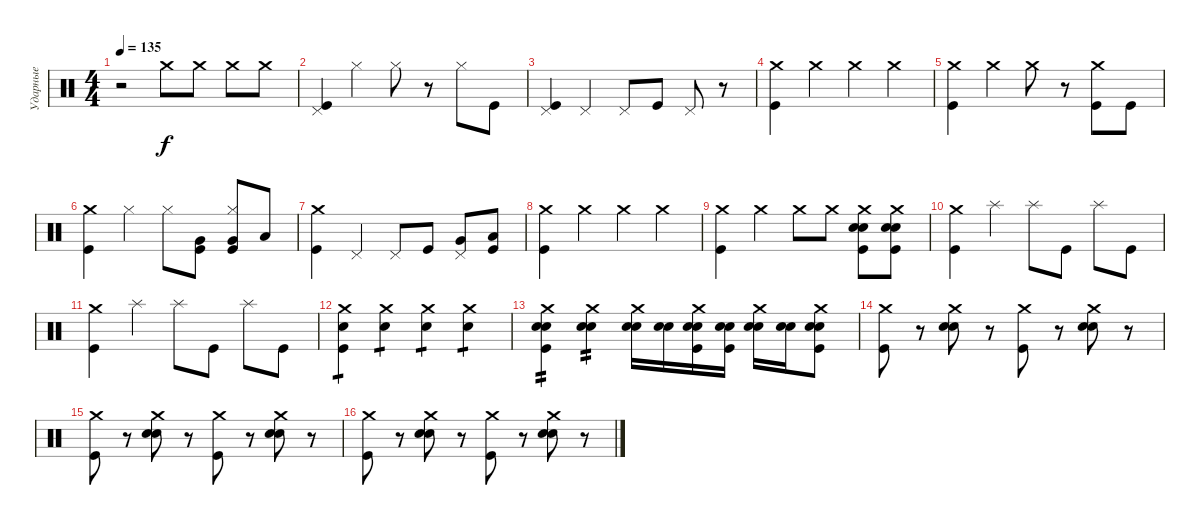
\track ("Ударные" "Ударные") {instrument percussion}
\staff {score}
\articulation defaults
\ts (4 4)
\tempo 135
\clef neutral
\ks c
r.2{dy f} "Crash medium (hit)".8 "Crash medium (hit)".8 "Crash medium (hit)".8 "Crash medium (hit)".8 |
("Pedal Hi-Hat (hit)" "Kick (hit)").4 "Hi-Hat (closed)".4 "Hi-Hat (closed)".8 r.8 "Hi-Hat (closed)".8 "Kick (hit)".8 |
("Pedal Hi-Hat (hit)" "Kick (hit)").4 "Pedal Hi-Hat (hit)".4 "Pedal Hi-Hat (hit)".8 "Kick (hit)".8 "Pedal Hi-Hat (hit)".8 r.8 |
("Crash medium (hit)" "Kick (hit)").4 "Crash medium (hit)".4 "Crash medium (hit)".4 "Crash medium (hit)".4 |
("Crash medium (hit)" "Kick (hit)").4 "Crash medium (hit)".4 "Crash medium (hit)".8 r.8 ("Crash medium (hit)" "Kick (hit)").8 "Kick (hit)".8 |
("Crash medium (hit)" "Kick (hit)").4 "Hi-Hat (closed)".4 "Hi-Hat (closed)".8 ("Very Low Tom (hit)" "Kick (hit)").8 ("Hi-Hat (closed)" "Very Low Tom (hit)" "Kick (hit)").8 "Low Floor Tom (hit)".8 |
("Crash medium (hit)" "Kick (hit)").4 "Pedal Hi-Hat (hit)".4 "Pedal Hi-Hat (hit)".8 "Kick (hit)".8 ("Pedal Hi-Hat (hit)" "Very Low Tom (hit)").8 ("Low Floor Tom (hit)" "Kick (hit)").8 |
("Crash medium (hit)" "Kick (hit)").4 "Crash medium (hit)".4 "Crash medium (hit)".4 "Crash medium (hit)".4 |
("Crash medium (hit)" "Kick (hit)").4 "Crash medium (hit)".4 "Crash medium (hit)".8 "Crash medium (hit)".8 ("Crash medium (hit)" "Electric Snare (hit)" "Electric Snare (hit)" "Kick (hit)").8 ("Crash medium (hit)" "Electric Snare (hit)" "Electric Snare (hit)" "Kick (hit)").8 |
("Crash medium (hit)" "Kick (hit)").4 "Splash (hit)".4 "Splash (hit)".8 "Kick (hit)".8 "Splash (hit)".8 "Kick (hit)".8 |
("Crash medium (hit)" "Kick (hit)").4 "Splash (hit)".4 "Splash (hit)".8 "Kick (hit)".8 "Splash (hit)".8 "Kick (hit)".8 |
("Crash medium (hit)" "Electric Snare (hit)" "Kick (hit)").4{tp 1} ("Crash medium (hit)" "Electric Snare (hit)").4{tp 1} ("Crash medium (hit)" "Electric Snare (hit)").4{tp 1} ("Crash medium (hit)" "Electric Snare (hit)").4{tp 1} |
("Crash medium (hit)" "Electric Snare (hit)" "Electric Snare (hit)" "Kick (hit)").4{tp 2} ("Crash medium (hit)" "Electric Snare (hit)" "Electric Snare (hit)").4{tp 2} ("Crash medium (hit)" "Electric Snare (hit)" "Electric Snare (hit)").16 ("Electric Snare (hit)" "Electric Snare (hit)").16 ("Crash medium (hit)" "Electric Snare (hit)" "Electric Snare (hit)" "Kick (hit)").16 ("Electric Snare (hit)" "Electric Snare (hit)" "Kick (hit)").16 ("Crash medium (hit)" "Electric Snare (hit)" "Electric Snare (hit)").16 ("Electric Snare (hit)" "Electric Snare (hit)").16 ("Crash medium (hit)" "Electric Snare (hit)" "Electric Snare (hit)" "Kick (hit)").8 |
("Crash medium (hit)" "Kick (hit)").8 r.8 ("Crash medium (hit)" "Electric Snare (hit)" "Electric Snare (hit)").8 r.8 ("Crash medium (hit)" "Kick (hit)").8 r.8 ("Crash medium (hit)" "Electric Snare (hit)" "Electric Snare (hit)").8 r.8 |
("Crash medium (hit)" "Kick (hit)").8 r.8 ("Crash medium (hit)" "Electric Snare (hit)" "Electric Snare (hit)").8 r.8 ("Crash medium (hit)" "Kick (hit)").8 r.8 ("Crash medium (hit)" "Electric Snare (hit)" "Electric Snare (hit)").8 r.8 |
("Crash medium (hit)" "Kick (hit)").8 r.8 ("Crash medium (hit)" "Electric Snare (hit)" "Electric Snare (hit)").8 r.8 ("Crash medium (hit)" "Kick (hit)").8 r.8 ("Crash medium (hit)" "Electric Snare (hit)" "Electric Snare (hit)").8 r.8
